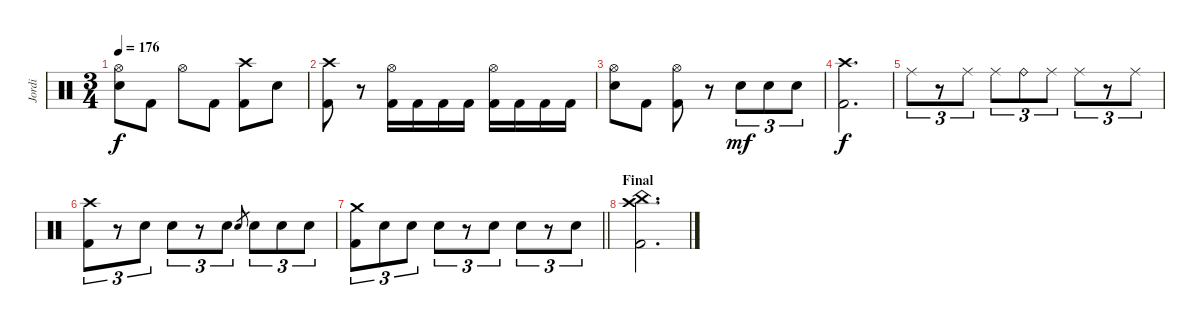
\track ("Jordi" "Jordi") {instrument percussion}
\staff {score}
\articulation defaults
\ts (3 4)
\tempo 176
\clef neutral
\ks c
("Hi-Hat (open)" "Snare (hit) 2").8{dy f} "Kick (hit) 2".8 "Hi-Hat (open)".8 "Kick (hit) 2".8 ("Crash high (hit)" "Kick (hit) 2").8 "Snare (hit) 2".8 |
("Crash high (hit)" "Kick (hit) 2").8 r.8 ("Hi-Hat (open)" "Kick (hit) 2").16 "Kick (hit) 2".16 "Kick (hit) 2".16 "Kick (hit) 2".16 ("Hi-Hat (open)" "Kick (hit) 2").16 "Kick (hit) 2".16 "Kick (hit) 2".16 "Kick (hit) 2".16 |
("Hi-Hat (open)" "Snare (hit) 2").8 "Kick (hit) 2".8 ("Hi-Hat (open)" "Kick (hit) 2").8 r.8 "Snare (hit) 2".8{tu (3 2) dy mf} "Snare (hit) 2".8{tu (3 2)} "Snare (hit) 2".8{tu (3 2)} |
("Crash high (hit)" "Kick (hit) 2").2{d dy f} |
"Ride (middle)".8{tu (3 2)} r.8{tu (3 2)} "Ride (middle)".8{tu (3 2)} "Ride (middle)".8{tu (3 2)} "Ride (bell)".8{tu (3 2)} "Ride (middle)".8{tu (3 2)} "Ride (middle)".8{tu (3 2)} r.8{tu (3 2)} "Ride (middle)".8{tu (3 2)} |
("Crash high (hit)" "Kick (hit) 2").8{tu (3 2)} r.8{tu (3 2)} "Snare (hit) 2".8{tu (3 2)} "Snare (hit) 2".8{tu (3 2)} r.8{tu (3 2)} "Snare (hit) 2".8{tu (3 2)} "Snare (hit) 2".8{gr} "Snare (hit) 2".8{tu (3 2)} "Snare (hit) 2".8{tu (3 2)} "Snare (hit) 2".8{tu (3 2)} |
\barLineRight lightlight
("Crash medium (hit)" "Kick (hit) 2").8{tu (3 2)} "Snare (hit) 2".8{tu (3 2)} "Snare (hit) 2".8{tu (3 2)} "Snare (hit) 2".8{tu (3 2)} r.8{tu (3 2)} "Snare (hit) 2".8{tu (3 2)} "Snare (hit) 2".8{tu (3 2)} r.8{tu (3 2)} "Snare (hit) 2".8{tu (3 2)} |
\section ("" "Final")
("Crash high (hit)" "China (hit)" "Kick (hit) 2").2{d}
